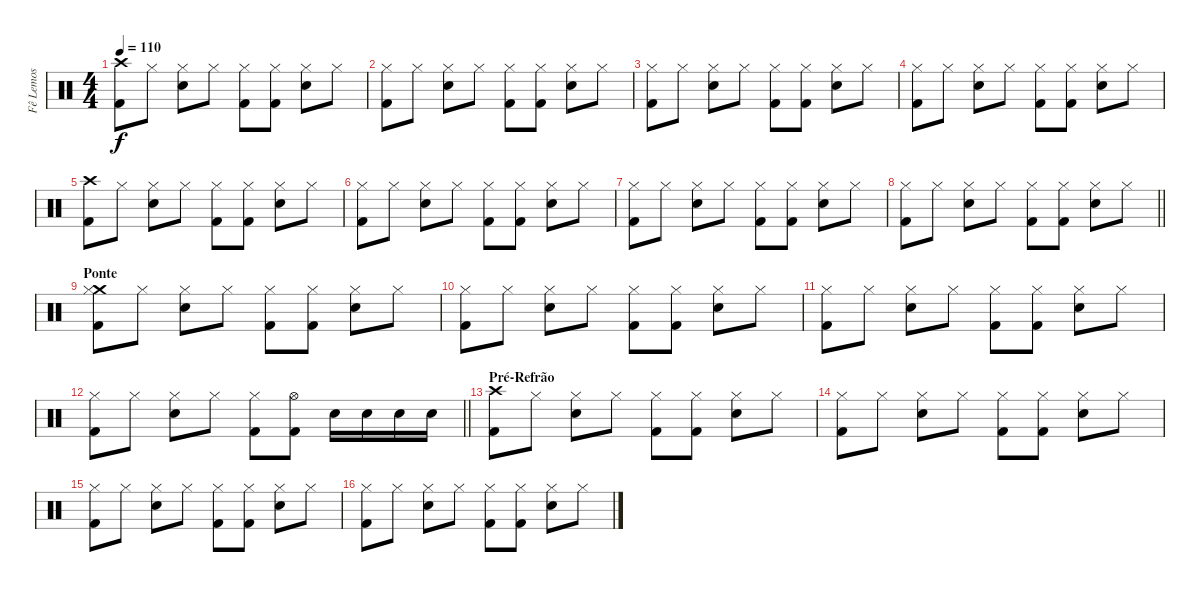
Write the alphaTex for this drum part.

\track ("Fê Lemos" "Fê Lemos") {instrument percussion}
\staff {score}
\articulation defaults
\ts (4 4)
\tempo 110
\clef neutral
\ks c
("Crash high (hit)" "Kick (hit) 2").8{dy f} "Hi-Hat (closed)".8 ("Hi-Hat (closed)" "Electric Snare (hit)").8 "Hi-Hat (closed)".8 ("Hi-Hat (closed)" "Kick (hit) 2").8 ("Hi-Hat (closed)" "Kick (hit) 2").8 ("Hi-Hat (closed)" "Electric Snare (hit)").8 "Hi-Hat (closed)".8 |
("Hi-Hat (closed)" "Kick (hit) 2").8 "Hi-Hat (closed)".8 ("Hi-Hat (closed)" "Electric Snare (hit)").8 "Hi-Hat (closed)".8 ("Hi-Hat (closed)" "Kick (hit) 2").8 ("Hi-Hat (closed)" "Kick (hit) 2").8 ("Hi-Hat (closed)" "Electric Snare (hit)").8 "Hi-Hat (closed)".8 |
("Hi-Hat (closed)" "Kick (hit) 2").8 "Hi-Hat (closed)".8 ("Hi-Hat (closed)" "Electric Snare (hit)").8 "Hi-Hat (closed)".8 ("Hi-Hat (closed)" "Kick (hit) 2").8 ("Hi-Hat (closed)" "Kick (hit) 2").8 ("Hi-Hat (closed)" "Electric Snare (hit)").8 "Hi-Hat (closed)".8 |
("Hi-Hat (closed)" "Kick (hit) 2").8 "Hi-Hat (closed)".8 ("Hi-Hat (closed)" "Electric Snare (hit)").8 "Hi-Hat (closed)".8 ("Hi-Hat (closed)" "Kick (hit) 2").8 ("Hi-Hat (closed)" "Kick (hit) 2").8 ("Hi-Hat (closed)" "Electric Snare (hit)").8 "Hi-Hat (closed)".8 |
("Crash high (hit)" "Kick (hit) 2").8 "Hi-Hat (closed)".8 ("Hi-Hat (closed)" "Electric Snare (hit)").8 "Hi-Hat (closed)".8 ("Hi-Hat (closed)" "Kick (hit) 2").8 ("Hi-Hat (closed)" "Kick (hit) 2").8 ("Hi-Hat (closed)" "Electric Snare (hit)").8 "Hi-Hat (closed)".8 |
("Hi-Hat (closed)" "Kick (hit) 2").8 "Hi-Hat (closed)".8 ("Hi-Hat (closed)" "Electric Snare (hit)").8 "Hi-Hat (closed)".8 ("Hi-Hat (closed)" "Kick (hit) 2").8 ("Hi-Hat (closed)" "Kick (hit) 2").8 ("Hi-Hat (closed)" "Electric Snare (hit)").8 "Hi-Hat (closed)".8 |
("Hi-Hat (closed)" "Kick (hit) 2").8 "Hi-Hat (closed)".8 ("Hi-Hat (closed)" "Electric Snare (hit)").8 "Hi-Hat (closed)".8 ("Hi-Hat (closed)" "Kick (hit) 2").8 ("Hi-Hat (closed)" "Kick (hit) 2").8 ("Hi-Hat (closed)" "Electric Snare (hit)").8 "Hi-Hat (closed)".8 |
\barLineRight lightlight
("Hi-Hat (closed)" "Kick (hit) 2").8 "Hi-Hat (closed)".8 ("Hi-Hat (closed)" "Electric Snare (hit)").8 "Hi-Hat (closed)".8 ("Hi-Hat (closed)" "Kick (hit) 2").8 ("Hi-Hat (closed)" "Kick (hit) 2").8 ("Hi-Hat (closed)" "Electric Snare (hit)").8 "Hi-Hat (closed)".8 |
\section ("" "Ponte")
("Crash medium (hit)" "Hi-Hat (closed)" "Kick (hit) 2").8 "Hi-Hat (closed)".8 ("Hi-Hat (closed)" "Electric Snare (hit)").8 "Hi-Hat (closed)".8 ("Hi-Hat (closed)" "Kick (hit) 2").8 ("Hi-Hat (closed)" "Kick (hit) 2").8 ("Hi-Hat (closed)" "Electric Snare (hit)").8 "Hi-Hat (closed)".8 |
("Hi-Hat (closed)" "Kick (hit) 2").8 "Hi-Hat (closed)".8 ("Hi-Hat (closed)" "Electric Snare (hit)").8 "Hi-Hat (closed)".8 ("Hi-Hat (closed)" "Kick (hit) 2").8 ("Hi-Hat (closed)" "Kick (hit) 2").8 ("Hi-Hat (closed)" "Electric Snare (hit)").8 "Hi-Hat (closed)".8 |
("Hi-Hat (closed)" "Kick (hit) 2").8 "Hi-Hat (closed)".8 ("Hi-Hat (closed)" "Electric Snare (hit)").8 "Hi-Hat (closed)".8 ("Hi-Hat (closed)" "Kick (hit) 2").8 ("Hi-Hat (closed)" "Kick (hit) 2").8 ("Hi-Hat (closed)" "Electric Snare (hit)").8 "Hi-Hat (closed)".8 |
\barLineRight lightlight
("Hi-Hat (closed)" "Kick (hit) 2").8 "Hi-Hat (closed)".8 ("Hi-Hat (closed)" "Electric Snare (hit)").8 "Hi-Hat (closed)".8 ("Hi-Hat (closed)" "Kick (hit) 2").8 ("Hi-Hat (open)" "Kick (hit) 2").8 "Electric Snare (hit)".16 "Electric Snare (hit)".16 "Electric Snare (hit)".16 "Electric Snare (hit)".16 |
\section ("" "Pré-Refrão")
("Crash high (hit)" "Kick (hit) 2").8 "Hi-Hat (closed)".8 ("Hi-Hat (closed)" "Electric Snare (hit)").8 "Hi-Hat (closed)".8 ("Hi-Hat (closed)" "Kick (hit) 2").8 ("Hi-Hat (closed)" "Kick (hit) 2").8 ("Hi-Hat (closed)" "Electric Snare (hit)").8 "Hi-Hat (closed)".8 |
("Hi-Hat (closed)" "Kick (hit) 2").8 "Hi-Hat (closed)".8 ("Hi-Hat (closed)" "Electric Snare (hit)").8 "Hi-Hat (closed)".8 ("Hi-Hat (closed)" "Kick (hit) 2").8 ("Hi-Hat (closed)" "Kick (hit) 2").8 ("Hi-Hat (closed)" "Electric Snare (hit)").8 "Hi-Hat (closed)".8 |
("Hi-Hat (closed)" "Kick (hit) 2").8 "Hi-Hat (closed)".8 ("Hi-Hat (closed)" "Electric Snare (hit)").8 "Hi-Hat (closed)".8 ("Hi-Hat (closed)" "Kick (hit) 2").8 ("Hi-Hat (closed)" "Kick (hit) 2").8 ("Hi-Hat (closed)" "Electric Snare (hit)").8 "Hi-Hat (closed)".8 |
("Hi-Hat (closed)" "Kick (hit) 2").8 "Hi-Hat (closed)".8 ("Hi-Hat (closed)" "Electric Snare (hit)").8 "Hi-Hat (closed)".8 ("Hi-Hat (closed)" "Kick (hit) 2").8 ("Hi-Hat (closed)" "Kick (hit) 2").8 ("Hi-Hat (closed)" "Electric Snare (hit)").8 "Hi-Hat (closed)".8
